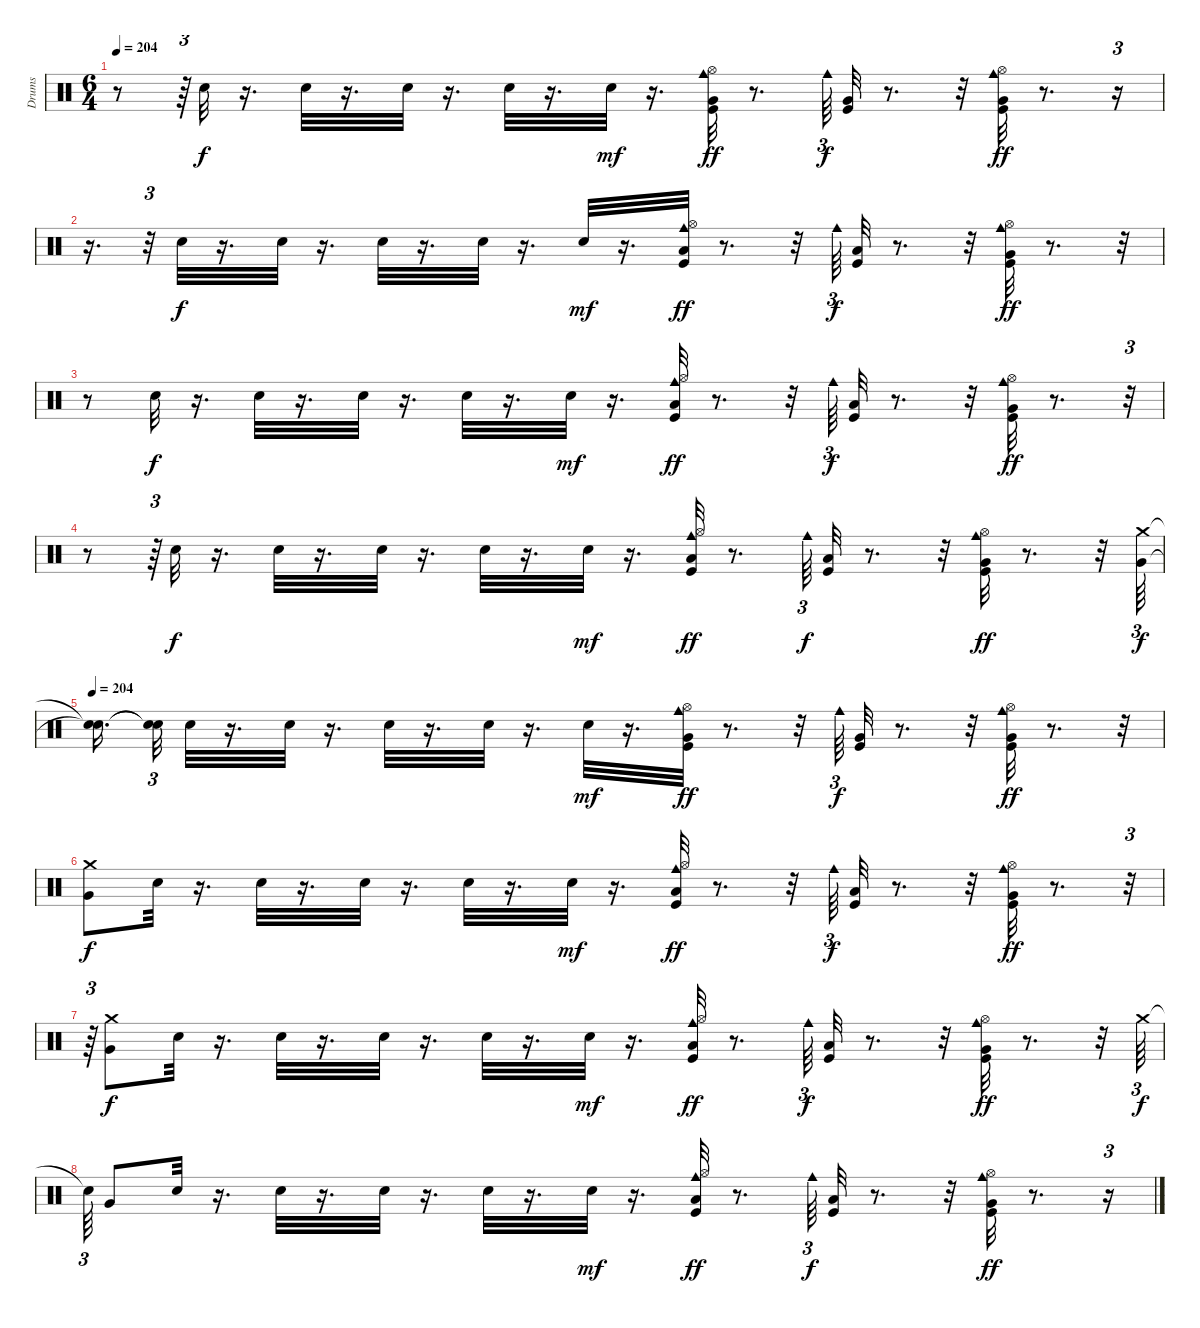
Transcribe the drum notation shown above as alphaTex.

\track ("Drums" "Drums") {instrument percussion}
\staff {score}
\articulation defaults
\ts (6 4)
\tempo 204
\clef neutral
\ks c
r.8{dy ff} r.64{tu (3 2)} "Snare (hit) 2".32{dy f} r.16{d} "Snare (hit) 2".32 r.16{d} "Snare (hit) 2".32 r.16{d} "Snare (hit) 2".32 r.16{d} "Electric Snare (hit)".32{dy mf} r.16{d} ("Very Low Tom (hit)" "Kick (hit)" "Hi-Hat (open)" "Cowbell medium (hit)").32{dy ff} r.8{d} "Cowbell medium (hit)".64{tu (3 2) dy f} ("Very Low Tom (hit)" "Kick (hit)").32 r.8{d} r.32 ("Very Low Tom (hit)" "Hi-Hat (open)" "Kick (hit)" "Cowbell medium (hit)").32{dy ff} r.8{d} r.16{tu (3 2)} |
r.16{d} r.32{tu (3 2)} "Snare (hit) 2".32{dy f} r.16{d} "Snare (hit) 2".32 r.16{d} "Snare (hit) 2".32 r.16{d} "Snare (hit) 2".32 r.16{d} "Snare (hit) 2".32{dy mf} r.16{d} ("Kick (hit)" "Hi-Hat (open)" "Cowbell medium (hit)" "Low Floor Tom (hit)").32{dy ff} r.8{d} r.32 "Cowbell medium (hit)".64{tu (3 2) dy f} ("Kick (hit)" "Low Floor Tom (hit)").32 r.8{d} r.32 ("Hi-Hat (open)" "Kick (hit)" "Cowbell medium (hit)" "Very Low Tom (hit)").32{dy ff} r.8{d} r.32 |
r.8 "Snare (hit) 2".32{dy f} r.16{d} "Snare (hit) 2".32 r.16{d} "Snare (hit) 2".32 r.16{d} "Snare (hit) 2".32 r.16{d} "Snare (hit) 2".32{dy mf} r.16{d} ("Kick (hit)" "Hi-Hat (open)" "Cowbell medium (hit)" "Low Floor Tom (hit)").32{dy ff} r.8{d} r.32 "Cowbell medium (hit)".64{tu (3 2) dy f} ("Kick (hit)" "Low Floor Tom (hit)").32 r.8{d} r.32 ("Hi-Hat (open)" "Kick (hit)" "Cowbell medium (hit)" "Very Low Tom (hit)").32{dy ff} r.8{d} r.32{tu (3 2)} |
r.8 r.64{tu (3 2)} "Snare (hit) 2".32{dy f} r.16{d} "Snare (hit) 2".32 r.16{d} "Snare (hit) 2".32 r.16{d} "Snare (hit) 2".32 r.16{d} "Snare (hit) 2".32{dy mf} r.16{d} ("Kick (hit)" "Hi-Hat (open)" "Cowbell medium (hit)" "Low Floor Tom (hit)").32{dy ff} r.8{d} "Cowbell medium (hit)".64{tu (3 2) dy f} ("Kick (hit)" "Low Floor Tom (hit)").32 r.8{d} r.32 ("Hi-Hat (open)" "Kick (hit)" "Cowbell medium (hit)" "Very Low Tom (hit)").32{dy ff} r.8{d} r.32 ("Crash medium (hit)" "Very Low Tom (hit)").64{tu (3 2) dy f} |
\tempo 204
("Snare (hit)"{t} "Snare (hit)"{t}).16{d} ("Snare (hit)"{t} "Snare (hit)"{t}).32{tu (3 2)} "Snare (hit) 2".32 r.16{d} "Snare (hit) 2".32 r.16{d} "Snare (hit) 2".32 r.16{d} "Snare (hit) 2".32 r.16{d} "Electric Snare (hit)".32{dy mf} r.16{d} ("Very Low Tom (hit)" "Kick (hit)" "Hi-Hat (open)" "Cowbell medium (hit)").32{dy ff} r.8{d} r.32 "Cowbell medium (hit)".64{tu (3 2) dy f} ("Very Low Tom (hit)" "Kick (hit)").32 r.8{d} r.32 ("Very Low Tom (hit)" "Hi-Hat (open)" "Kick (hit)" "Cowbell medium (hit)").32{dy ff} r.8{d} r.32 |
("Very Low Tom (hit)" "Crash medium (hit)").8{dy f} "Snare (hit) 2".32 r.16{d} "Snare (hit) 2".32 r.16{d} "Snare (hit) 2".32 r.16{d} "Snare (hit) 2".32 r.16{d} "Snare (hit) 2".32{dy mf} r.16{d} ("Kick (hit)" "Hi-Hat (open)" "Cowbell medium (hit)" "Low Floor Tom (hit)").32{dy ff} r.8{d} r.32 "Cowbell medium (hit)".64{tu (3 2) dy f} ("Kick (hit)" "Low Floor Tom (hit)").32 r.8{d} r.32 ("Hi-Hat (open)" "Kick (hit)" "Cowbell medium (hit)" "Very Low Tom (hit)").32{dy ff} r.8{d} r.32{tu (3 2)} |
r.64{tu (3 2)} ("Very Low Tom (hit)" "Crash medium (hit)").8{dy f} "Snare (hit) 2".32 r.16{d} "Snare (hit) 2".32 r.16{d} "Snare (hit) 2".32 r.16{d} "Snare (hit) 2".32 r.16{d} "Snare (hit) 2".32{dy mf} r.16{d} ("Kick (hit)" "Hi-Hat (open)" "Cowbell medium (hit)" "Low Floor Tom (hit)").32{dy ff} r.8{d} "Cowbell medium (hit)".64{tu (3 2) dy f} ("Kick (hit)" "Low Floor Tom (hit)").32 r.8{d} r.32 ("Hi-Hat (open)" "Kick (hit)" "Cowbell medium (hit)" "Very Low Tom (hit)").32{dy ff} r.8{d} r.32 "Crash medium (hit)".64{tu (3 2) dy f} |
"Snare (hit)"{t}.64{tu (3 2)} "Very Low Tom (hit)".8 "Snare (hit) 2".32 r.16{d} "Snare (hit) 2".32 r.16{d} "Snare (hit) 2".32 r.16{d} "Snare (hit) 2".32 r.16{d} "Snare (hit) 2".32{dy mf} r.16{d} ("Kick (hit)" "Hi-Hat (open)" "Cowbell medium (hit)" "Low Floor Tom (hit)").32{dy ff} r.8{d} "Cowbell medium (hit)".64{tu (3 2) dy f} ("Kick (hit)" "Low Floor Tom (hit)").32 r.8{d} r.32 ("Hi-Hat (open)" "Kick (hit)" "Cowbell medium (hit)" "Very Low Tom (hit)").32{dy ff} r.8{d} r.16{tu (3 2)}
